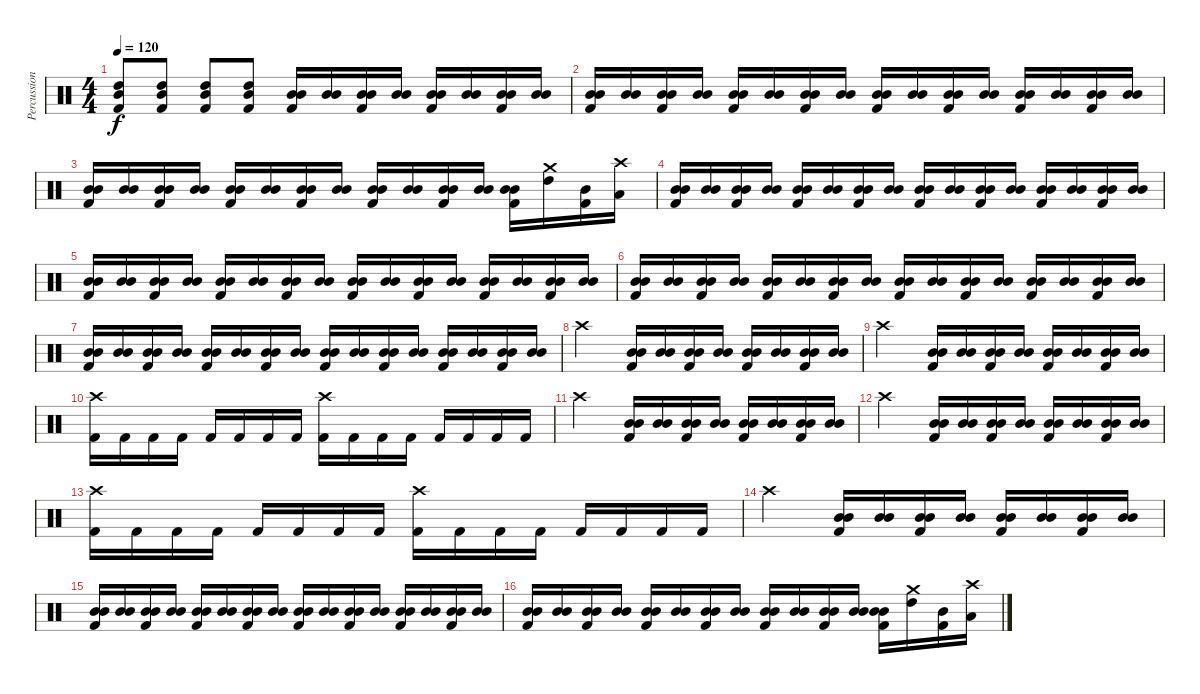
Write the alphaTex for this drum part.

\track ("Percussion" "Percussion") {instrument percussion}
\staff {score}
\articulation defaults
\ts (4 4)
\tempo 120
\clef neutral
\ks c
("High Tom (hit)" "Mid Tom (hit)" "Kick (hit) 2").8{dy f} ("High Tom (hit)" "Mid Tom (hit)" "Kick (hit) 2").8 ("High Tom (hit)" "Mid Tom (hit)" "Kick (hit) 2").8 ("High Tom (hit)" "Mid Tom (hit)" "Kick (hit) 2").8 ("Mid Tom (hit)" "Mid Tom (hit)" "Kick (hit) 2").16 ("Mid Tom (hit)" "Mid Tom (hit)").16 ("Mid Tom (hit)" "Mid Tom (hit)" "Kick (hit) 2").16 ("Mid Tom (hit)" "Mid Tom (hit)").16 ("Mid Tom (hit)" "Mid Tom (hit)" "Kick (hit) 2").16 ("Mid Tom (hit)" "Mid Tom (hit)").16 ("Mid Tom (hit)" "Mid Tom (hit)" "Kick (hit) 2").16 ("Mid Tom (hit)" "Mid Tom (hit)").16 |
("Mid Tom (hit)" "Mid Tom (hit)" "Kick (hit) 2").16 ("Mid Tom (hit)" "Mid Tom (hit)").16 ("Mid Tom (hit)" "Mid Tom (hit)" "Kick (hit) 2").16 ("Mid Tom (hit)" "Mid Tom (hit)").16 ("Mid Tom (hit)" "Mid Tom (hit)" "Kick (hit) 2").16 ("Mid Tom (hit)" "Mid Tom (hit)").16 ("Mid Tom (hit)" "Mid Tom (hit)" "Kick (hit) 2").16 ("Mid Tom (hit)" "Mid Tom (hit)").16 ("Mid Tom (hit)" "Mid Tom (hit)" "Kick (hit) 2").16 ("Mid Tom (hit)" "Mid Tom (hit)").16 ("Mid Tom (hit)" "Mid Tom (hit)" "Kick (hit) 2").16 ("Mid Tom (hit)" "Mid Tom (hit)").16 ("Mid Tom (hit)" "Mid Tom (hit)" "Kick (hit) 2").16 ("Mid Tom (hit)" "Mid Tom (hit)").16 ("Mid Tom (hit)" "Mid Tom (hit)" "Kick (hit) 2").16 ("Mid Tom (hit)" "Mid Tom (hit)").16 |
("Mid Tom (hit)" "Mid Tom (hit)" "Kick (hit) 2").16 ("Mid Tom (hit)" "Mid Tom (hit)").16 ("Mid Tom (hit)" "Mid Tom (hit)" "Kick (hit) 2").16 ("Mid Tom (hit)" "Mid Tom (hit)").16 ("Mid Tom (hit)" "Mid Tom (hit)" "Kick (hit) 2").16 ("Mid Tom (hit)" "Mid Tom (hit)").16 ("Mid Tom (hit)" "Mid Tom (hit)" "Kick (hit) 2").16 ("Mid Tom (hit)" "Mid Tom (hit)").16 ("Mid Tom (hit)" "Mid Tom (hit)" "Kick (hit) 2").16 ("Mid Tom (hit)" "Mid Tom (hit)").16 ("Mid Tom (hit)" "Mid Tom (hit)" "Kick (hit) 2").16 ("Mid Tom (hit)" "Mid Tom (hit)").16 ("Mid Tom (hit)" "Mid Tom (hit)" "Kick (hit) 2").16 ("Crash medium (hit)" "High Tom (hit)").16 ("Mid Tom (hit)" "Kick (hit) 2").16 ("Crash high (hit)" "Low Tom (hit)").16 |
("Mid Tom (hit)" "Mid Tom (hit)" "Kick (hit) 2").16 ("Mid Tom (hit)" "Mid Tom (hit)").16 ("Mid Tom (hit)" "Mid Tom (hit)" "Kick (hit) 2").16 ("Mid Tom (hit)" "Mid Tom (hit)").16 ("Mid Tom (hit)" "Mid Tom (hit)" "Kick (hit) 2").16 ("Mid Tom (hit)" "Mid Tom (hit)").16 ("Mid Tom (hit)" "Mid Tom (hit)" "Kick (hit) 2").16 ("Mid Tom (hit)" "Mid Tom (hit)").16 ("Mid Tom (hit)" "Mid Tom (hit)" "Kick (hit) 2").16 ("Mid Tom (hit)" "Mid Tom (hit)").16 ("Mid Tom (hit)" "Mid Tom (hit)" "Kick (hit) 2").16 ("Mid Tom (hit)" "Mid Tom (hit)").16 ("Mid Tom (hit)" "Mid Tom (hit)" "Kick (hit) 2").16 ("Mid Tom (hit)" "Mid Tom (hit)").16 ("Mid Tom (hit)" "Mid Tom (hit)" "Kick (hit) 2").16 ("Mid Tom (hit)" "Mid Tom (hit)").16 |
("Mid Tom (hit)" "Mid Tom (hit)" "Kick (hit) 2").16 ("Mid Tom (hit)" "Mid Tom (hit)").16 ("Mid Tom (hit)" "Mid Tom (hit)" "Kick (hit) 2").16 ("Mid Tom (hit)" "Mid Tom (hit)").16 ("Mid Tom (hit)" "Mid Tom (hit)" "Kick (hit) 2").16 ("Mid Tom (hit)" "Mid Tom (hit)").16 ("Mid Tom (hit)" "Mid Tom (hit)" "Kick (hit) 2").16 ("Mid Tom (hit)" "Mid Tom (hit)").16 ("Mid Tom (hit)" "Mid Tom (hit)" "Kick (hit) 2").16 ("Mid Tom (hit)" "Mid Tom (hit)").16 ("Mid Tom (hit)" "Mid Tom (hit)" "Kick (hit) 2").16 ("Mid Tom (hit)" "Mid Tom (hit)").16 ("Mid Tom (hit)" "Mid Tom (hit)" "Kick (hit) 2").16 ("Mid Tom (hit)" "Mid Tom (hit)").16 ("Mid Tom (hit)" "Mid Tom (hit)" "Kick (hit) 2").16 ("Mid Tom (hit)" "Mid Tom (hit)").16 |
("Mid Tom (hit)" "Mid Tom (hit)" "Kick (hit) 2").16 ("Mid Tom (hit)" "Mid Tom (hit)").16 ("Mid Tom (hit)" "Mid Tom (hit)" "Kick (hit) 2").16 ("Mid Tom (hit)" "Mid Tom (hit)").16 ("Mid Tom (hit)" "Mid Tom (hit)" "Kick (hit) 2").16 ("Mid Tom (hit)" "Mid Tom (hit)").16 ("Mid Tom (hit)" "Mid Tom (hit)" "Kick (hit) 2").16 ("Mid Tom (hit)" "Mid Tom (hit)").16 ("Mid Tom (hit)" "Mid Tom (hit)" "Kick (hit) 2").16 ("Mid Tom (hit)" "Mid Tom (hit)").16 ("Mid Tom (hit)" "Mid Tom (hit)" "Kick (hit) 2").16 ("Mid Tom (hit)" "Mid Tom (hit)").16 ("Mid Tom (hit)" "Mid Tom (hit)" "Kick (hit) 2").16 ("Mid Tom (hit)" "Mid Tom (hit)").16 ("Mid Tom (hit)" "Mid Tom (hit)" "Kick (hit) 2").16 ("Mid Tom (hit)" "Mid Tom (hit)").16 |
("Mid Tom (hit)" "Mid Tom (hit)" "Kick (hit) 2").16 ("Mid Tom (hit)" "Mid Tom (hit)").16 ("Mid Tom (hit)" "Mid Tom (hit)" "Kick (hit) 2").16 ("Mid Tom (hit)" "Mid Tom (hit)").16 ("Mid Tom (hit)" "Mid Tom (hit)" "Kick (hit) 2").16 ("Mid Tom (hit)" "Mid Tom (hit)").16 ("Mid Tom (hit)" "Mid Tom (hit)" "Kick (hit) 2").16 ("Mid Tom (hit)" "Mid Tom (hit)").16 ("Mid Tom (hit)" "Mid Tom (hit)" "Kick (hit) 2").16 ("Mid Tom (hit)" "Mid Tom (hit)").16 ("Mid Tom (hit)" "Mid Tom (hit)" "Kick (hit) 2").16 ("Mid Tom (hit)" "Mid Tom (hit)").16 ("Mid Tom (hit)" "Mid Tom (hit)" "Kick (hit) 2").16 ("Mid Tom (hit)" "Mid Tom (hit)").16 ("Mid Tom (hit)" "Mid Tom (hit)" "Kick (hit) 2").16 ("Mid Tom (hit)" "Mid Tom (hit)").16 |
"Crash high (hit)".2 ("Mid Tom (hit)" "Mid Tom (hit)" "Kick (hit) 2").16 ("Mid Tom (hit)" "Mid Tom (hit)").16 ("Mid Tom (hit)" "Mid Tom (hit)" "Kick (hit) 2").16 ("Mid Tom (hit)" "Mid Tom (hit)").16 ("Mid Tom (hit)" "Mid Tom (hit)" "Kick (hit) 2").16 ("Mid Tom (hit)" "Mid Tom (hit)").16 ("Mid Tom (hit)" "Mid Tom (hit)" "Kick (hit) 2").16 ("Mid Tom (hit)" "Mid Tom (hit)").16 |
"Crash high (hit)".2 ("Mid Tom (hit)" "Mid Tom (hit)" "Kick (hit) 2").16 ("Mid Tom (hit)" "Mid Tom (hit)").16 ("Mid Tom (hit)" "Mid Tom (hit)" "Kick (hit) 2").16 ("Mid Tom (hit)" "Mid Tom (hit)").16 ("Mid Tom (hit)" "Mid Tom (hit)" "Kick (hit) 2").16 ("Mid Tom (hit)" "Mid Tom (hit)").16 ("Mid Tom (hit)" "Mid Tom (hit)" "Kick (hit) 2").16 ("Mid Tom (hit)" "Mid Tom (hit)").16 |
("Crash high (hit)" "Kick (hit) 2").16 "Kick (hit) 2".16 "Kick (hit) 2".16 "Kick (hit) 2".16 "Kick (hit) 2".16 "Kick (hit) 2".16 "Kick (hit) 2".16 "Kick (hit) 2".16 ("Crash high (hit)" "Kick (hit) 2").16 "Kick (hit) 2".16 "Kick (hit) 2".16 "Kick (hit) 2".16 "Kick (hit) 2".16 "Kick (hit) 2".16 "Kick (hit) 2".16 "Kick (hit) 2".16 |
"Crash high (hit)".2 ("Mid Tom (hit)" "Mid Tom (hit)" "Kick (hit) 2").16 ("Mid Tom (hit)" "Mid Tom (hit)").16 ("Mid Tom (hit)" "Mid Tom (hit)" "Kick (hit) 2").16 ("Mid Tom (hit)" "Mid Tom (hit)").16 ("Mid Tom (hit)" "Mid Tom (hit)" "Kick (hit) 2").16 ("Mid Tom (hit)" "Mid Tom (hit)").16 ("Mid Tom (hit)" "Mid Tom (hit)" "Kick (hit) 2").16 ("Mid Tom (hit)" "Mid Tom (hit)").16 |
"Crash high (hit)".2 ("Mid Tom (hit)" "Mid Tom (hit)" "Kick (hit) 2").16 ("Mid Tom (hit)" "Mid Tom (hit)").16 ("Mid Tom (hit)" "Mid Tom (hit)" "Kick (hit) 2").16 ("Mid Tom (hit)" "Mid Tom (hit)").16 ("Mid Tom (hit)" "Mid Tom (hit)" "Kick (hit) 2").16 ("Mid Tom (hit)" "Mid Tom (hit)").16 ("Mid Tom (hit)" "Mid Tom (hit)" "Kick (hit) 2").16 ("Mid Tom (hit)" "Mid Tom (hit)").16 |
("Crash high (hit)" "Kick (hit) 2").16 "Kick (hit) 2".16 "Kick (hit) 2".16 "Kick (hit) 2".16 "Kick (hit) 2".16 "Kick (hit) 2".16 "Kick (hit) 2".16 "Kick (hit) 2".16 ("Crash high (hit)" "Kick (hit) 2").16 "Kick (hit) 2".16 "Kick (hit) 2".16 "Kick (hit) 2".16 "Kick (hit) 2".16 "Kick (hit) 2".16 "Kick (hit) 2".16 "Kick (hit) 2".16 |
"Crash high (hit)".2 ("Mid Tom (hit)" "Mid Tom (hit)" "Kick (hit) 2").16 ("Mid Tom (hit)" "Mid Tom (hit)").16 ("Mid Tom (hit)" "Mid Tom (hit)" "Kick (hit) 2").16 ("Mid Tom (hit)" "Mid Tom (hit)").16 ("Mid Tom (hit)" "Mid Tom (hit)" "Kick (hit) 2").16 ("Mid Tom (hit)" "Mid Tom (hit)").16 ("Mid Tom (hit)" "Mid Tom (hit)" "Kick (hit) 2").16 ("Mid Tom (hit)" "Mid Tom (hit)").16 |
("Mid Tom (hit)" "Mid Tom (hit)" "Kick (hit) 2").16 ("Mid Tom (hit)" "Mid Tom (hit)").16 ("Mid Tom (hit)" "Mid Tom (hit)" "Kick (hit) 2").16 ("Mid Tom (hit)" "Mid Tom (hit)").16 ("Mid Tom (hit)" "Mid Tom (hit)" "Kick (hit) 2").16 ("Mid Tom (hit)" "Mid Tom (hit)").16 ("Mid Tom (hit)" "Mid Tom (hit)" "Kick (hit) 2").16 ("Mid Tom (hit)" "Mid Tom (hit)").16 ("Mid Tom (hit)" "Mid Tom (hit)" "Kick (hit) 2").16 ("Mid Tom (hit)" "Mid Tom (hit)").16 ("Mid Tom (hit)" "Mid Tom (hit)" "Kick (hit) 2").16 ("Mid Tom (hit)" "Mid Tom (hit)").16 ("Mid Tom (hit)" "Mid Tom (hit)" "Kick (hit) 2").16 ("Mid Tom (hit)" "Mid Tom (hit)").16 ("Mid Tom (hit)" "Mid Tom (hit)" "Kick (hit) 2").16 ("Mid Tom (hit)" "Mid Tom (hit)").16 |
("Mid Tom (hit)" "Mid Tom (hit)" "Kick (hit) 2").16 ("Mid Tom (hit)" "Mid Tom (hit)").16 ("Mid Tom (hit)" "Mid Tom (hit)" "Kick (hit) 2").16 ("Mid Tom (hit)" "Mid Tom (hit)").16 ("Mid Tom (hit)" "Mid Tom (hit)" "Kick (hit) 2").16 ("Mid Tom (hit)" "Mid Tom (hit)").16 ("Mid Tom (hit)" "Mid Tom (hit)" "Kick (hit) 2").16 ("Mid Tom (hit)" "Mid Tom (hit)").16 ("Mid Tom (hit)" "Mid Tom (hit)" "Kick (hit) 2").16 ("Mid Tom (hit)" "Mid Tom (hit)").16 ("Mid Tom (hit)" "Mid Tom (hit)" "Kick (hit) 2").16 ("Mid Tom (hit)" "Mid Tom (hit)").16 ("Mid Tom (hit)" "Mid Tom (hit)" "Kick (hit) 2").16 ("Crash medium (hit)" "High Tom (hit)").16 ("Mid Tom (hit)" "Kick (hit) 2").16 ("Crash high (hit)" "Low Tom (hit)").16
